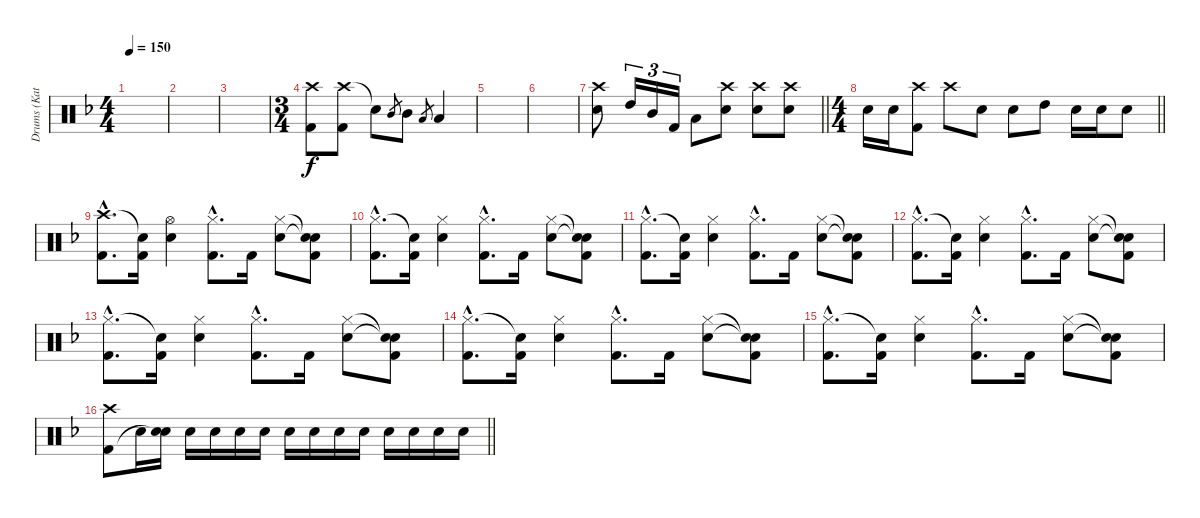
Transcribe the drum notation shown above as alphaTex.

\track ("Drums (Katsuji)" "Drums (Kat") {instrument percussion}
\staff {score}
\articulation defaults
\ts (4 4)
\tempo 150
\clef neutral
\ks f
|
|
|
\ts (3 4)
("Crash high (hit)" "Kick (hit) 2").8 ("Crash high (hit)" "Kick (hit) 2").8 "Snare (hit)"{t}.8 "Mid Tom (hit)".8{gr} "Mid Tom (hit)".8 "Low Tom (hit)".8{gr} "Low Tom (hit)".4 |
|
|
\barLineRight lightlight
("Crash high (hit)" "Snare (hit) 2").8 "High Tom (hit)".16{tu (3 2)} "Mid Tom (hit)".16{tu (3 2)} "Kick (hit) 2".16{tu (3 2)} "Low Tom (hit)".8 ("Crash high (hit)" "Snare (hit) 2").8 ("Crash high (hit)" "Snare (hit) 2").8 ("Crash high (hit)" "Snare (hit) 2").8 |
\ts (4 4)
\barLineRight lightlight "Snare (hit) 2".16 "Snare (hit) 2".16
("Crash high (hit)" "Kick (hit) 2").8 "Crash high (hit)".8 "Snare (hit) 2".8 "Snare (hit) 2".8 "High Tom (hit)".8 "Snare (hit) 2".16 "Snare (hit) 2".16 "Snare (hit) 2".8 |
("Crash high (hit)"{hac} "Kick (hit) 2"{hac}).8{d} ("Snare (hit)"{t} "Kick (hit) 2").16 ("Hi-Hat (open)" "Snare (hit) 2").4 ("Hi-Hat (closed)"{hac} "Kick (hit) 2"{hac}).8{d} "Kick (hit) 2".16 ("Hi-Hat (closed)" "Snare (hit) 2").8 ("Snare (hit)"{t} "Snare (hit)"{t} "Kick (hit) 2").8 |
("Hi-Hat (closed)"{hac} "Kick (hit) 2"{hac}).8{d} ("Snare (hit)"{t} "Kick (hit) 2").16 ("Hi-Hat (closed)" "Snare (hit) 2").4 ("Hi-Hat (closed)"{hac} "Kick (hit) 2"{hac}).8{d} "Kick (hit) 2".16 ("Hi-Hat (closed)" "Snare (hit) 2").8 ("Snare (hit)"{t} "Snare (hit)"{t} "Kick (hit) 2").8 |
("Hi-Hat (closed)"{hac} "Kick (hit) 2"{hac}).8{d} ("Snare (hit)"{t} "Kick (hit) 2").16 ("Hi-Hat (closed)" "Snare (hit) 2").4 ("Hi-Hat (closed)"{hac} "Kick (hit) 2"{hac}).8{d} "Kick (hit) 2".16 ("Hi-Hat (closed)" "Snare (hit) 2").8 ("Snare (hit)"{t} "Snare (hit)"{t} "Kick (hit) 2").8 |
("Hi-Hat (closed)"{hac} "Kick (hit) 2"{hac}).8{d} ("Snare (hit)"{t} "Kick (hit) 2").16 ("Hi-Hat (closed)" "Snare (hit) 2").4 ("Hi-Hat (closed)"{hac} "Kick (hit) 2"{hac}).8{d} "Kick (hit) 2".16 ("Hi-Hat (closed)" "Snare (hit) 2").8 ("Snare (hit)"{t} "Snare (hit)"{t} "Kick (hit) 2").8 |
("Hi-Hat (closed)"{hac} "Kick (hit) 2"{hac}).8{d} ("Snare (hit)"{t} "Kick (hit) 2").16 ("Hi-Hat (closed)" "Snare (hit) 2").4 ("Hi-Hat (closed)"{hac} "Kick (hit) 2"{hac}).8{d} "Kick (hit) 2".16 ("Hi-Hat (closed)" "Snare (hit) 2").8 ("Snare (hit)"{t} "Snare (hit)"{t} "Kick (hit) 2").8 |
("Hi-Hat (closed)"{hac} "Kick (hit) 2"{hac}).8{d} ("Snare (hit)"{t} "Kick (hit) 2").16 ("Hi-Hat (closed)" "Snare (hit) 2").4 ("Hi-Hat (closed)"{hac} "Kick (hit) 2"{hac}).8{d} "Kick (hit) 2".16 ("Hi-Hat (closed)" "Snare (hit) 2").8 ("Snare (hit)"{t} "Snare (hit)"{t} "Kick (hit) 2").8 |
("Hi-Hat (closed)"{hac} "Kick (hit) 2"{hac}).8{d} ("Snare (hit)"{t} "Kick (hit) 2").16 ("Hi-Hat (closed)" "Snare (hit) 2").4 ("Hi-Hat (closed)"{hac} "Kick (hit) 2"{hac}).8{d} "Kick (hit) 2".16 ("Hi-Hat (closed)" "Snare (hit) 2").8 ("Snare (hit)"{t} "Snare (hit)"{t} "Kick (hit) 2").8 |
\barLineRight lightlight
("Crash high (hit)" "Kick (hit) 2").8 "Snare (hit) 2".16 ("Snare (hit) 2" "Snare (hit)"{t}).16 "Snare (hit) 2".16 "Snare (hit) 2".16 "Snare (hit) 2".16 "Snare (hit) 2".16 "Snare (hit) 2".16 "Snare (hit) 2".16 "Snare (hit) 2".16 "Snare (hit) 2".16 "Snare (hit) 2".16 "Snare (hit) 2".16 "Snare (hit) 2".16 "Snare (hit) 2".16
